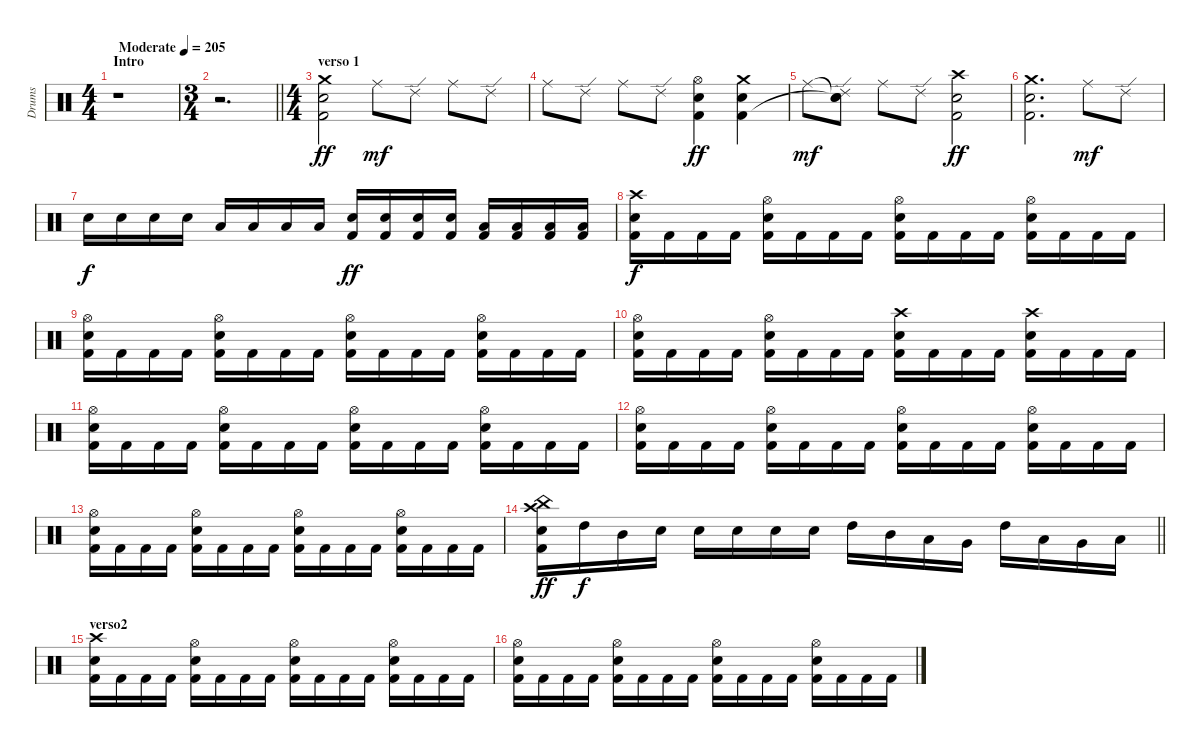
\track ("Drums" "Drums") {instrument percussion}
\staff {score}
\articulation defaults
\ts (4 4)
\section ("" "Intro")
\tempo (205 "Moderate")
\clef neutral
\ks c
r.1{dy ff} |
\ts (3 4)
\barLineRight lightlight
r.2{d} |
\ts (4 4)
\section ("" "verso 1")
("Crash medium (hit)" "Electric Snare (hit)" "Kick (hit) 2").2 "Ride (middle)".8{dy mf} "Ride (edge) 2".8 "Ride (middle)".8 "Ride (edge) 2".8 |
"Ride (middle)".8 "Ride (edge) 2".8 "Ride (middle)".8 "Ride (edge) 2".8 ("Hi-Hat (open)" "Electric Snare (hit)" "Kick (hit) 2").4{dy ff} ("Crash medium (hit)" "Electric Snare (hit)" "Kick (hit) 2").4 |
"Ride (middle)".8{dy mf} ("Snare (hit)"{t} "Ride (edge) 2" "Snare (hit)"{t}).8 "Ride (middle)".8 "Ride (edge) 2".8 ("Crash high (hit)" "Electric Snare (hit)" "Kick (hit) 2").2{dy ff} |
("Crash medium (hit)" "Electric Snare (hit)" "Kick (hit) 2").2{d} "Ride (middle)".8{dy mf} "Ride (edge) 2".8 |
"Electric Snare (hit)".16{dy f} "Electric Snare (hit)".16 "Electric Snare (hit)".16 "Electric Snare (hit)".16 "Low Tom (hit)".16 "Low Tom (hit)".16 "Low Tom (hit)".16 "Low Tom (hit)".16 ("Electric Snare (hit)" "Kick (hit) 2").16{dy ff} ("Electric Snare (hit)" "Kick (hit) 2").16 ("Electric Snare (hit)" "Kick (hit) 2").16 ("Electric Snare (hit)" "Kick (hit) 2").16 ("Low Tom (hit)" "Kick (hit) 2").16 ("Low Tom (hit)" "Kick (hit) 2").16 ("Low Tom (hit)" "Kick (hit) 2").16 ("Low Tom (hit)" "Kick (hit) 2").16 |
("Kick (hit) 2" "Electric Snare (hit)" "Crash high (hit)").16{dy f} "Kick (hit) 2".16 "Kick (hit) 2".16 "Kick (hit) 2".16 ("Kick (hit) 2" "Electric Snare (hit)" "Hi-Hat (open)").16 "Kick (hit) 2".16 "Kick (hit) 2".16 "Kick (hit) 2".16 ("Kick (hit) 2" "Electric Snare (hit)" "Hi-Hat (open)").16 "Kick (hit) 2".16 "Kick (hit) 2".16 "Kick (hit) 2".16 ("Kick (hit) 2" "Electric Snare (hit)" "Hi-Hat (open)").16 "Kick (hit) 2".16 "Kick (hit) 2".16 "Kick (hit) 2".16 |
("Kick (hit) 2" "Electric Snare (hit)" "Hi-Hat (open)").16 "Kick (hit) 2".16 "Kick (hit) 2".16 "Kick (hit) 2".16 ("Kick (hit) 2" "Electric Snare (hit)" "Hi-Hat (open)").16 "Kick (hit) 2".16 "Kick (hit) 2".16 "Kick (hit) 2".16 ("Kick (hit) 2" "Electric Snare (hit)" "Hi-Hat (open)").16 "Kick (hit) 2".16 "Kick (hit) 2".16 "Kick (hit) 2".16 ("Kick (hit) 2" "Electric Snare (hit)" "Hi-Hat (open)").16 "Kick (hit) 2".16 "Kick (hit) 2".16 "Kick (hit) 2".16 |
("Kick (hit) 2" "Electric Snare (hit)" "Hi-Hat (open)").16 "Kick (hit) 2".16 "Kick (hit) 2".16 "Kick (hit) 2".16 ("Kick (hit) 2" "Electric Snare (hit)" "Hi-Hat (open)").16 "Kick (hit) 2".16 "Kick (hit) 2".16 "Kick (hit) 2".16 ("Kick (hit) 2" "Electric Snare (hit)" "Crash high (hit)").16 "Kick (hit) 2".16 "Kick (hit) 2".16 "Kick (hit) 2".16 ("Kick (hit) 2" "Electric Snare (hit)" "Crash high (hit)").16 "Kick (hit) 2".16 "Kick (hit) 2".16 "Kick (hit) 2".16 |
("Kick (hit) 2" "Electric Snare (hit)" "Hi-Hat (open)").16 "Kick (hit) 2".16 "Kick (hit) 2".16 "Kick (hit) 2".16 ("Kick (hit) 2" "Electric Snare (hit)" "Hi-Hat (open)").16 "Kick (hit) 2".16 "Kick (hit) 2".16 "Kick (hit) 2".16 ("Kick (hit) 2" "Electric Snare (hit)" "Hi-Hat (open)").16 "Kick (hit) 2".16 "Kick (hit) 2".16 "Kick (hit) 2".16 ("Kick (hit) 2" "Electric Snare (hit)" "Hi-Hat (open)").16 "Kick (hit) 2".16 "Kick (hit) 2".16 "Kick (hit) 2".16 |
("Kick (hit) 2" "Electric Snare (hit)" "Hi-Hat (open)").16 "Kick (hit) 2".16 "Kick (hit) 2".16 "Kick (hit) 2".16 ("Kick (hit) 2" "Electric Snare (hit)" "Hi-Hat (open)").16 "Kick (hit) 2".16 "Kick (hit) 2".16 "Kick (hit) 2".16 ("Kick (hit) 2" "Electric Snare (hit)" "Hi-Hat (open)").16 "Kick (hit) 2".16 "Kick (hit) 2".16 "Kick (hit) 2".16 ("Kick (hit) 2" "Electric Snare (hit)" "Hi-Hat (open)").16 "Kick (hit) 2".16 "Kick (hit) 2".16 "Kick (hit) 2".16 |
("Kick (hit) 2" "Electric Snare (hit)" "Hi-Hat (open)").16 "Kick (hit) 2".16 "Kick (hit) 2".16 "Kick (hit) 2".16 ("Kick (hit) 2" "Electric Snare (hit)" "Hi-Hat (open)").16 "Kick (hit) 2".16 "Kick (hit) 2".16 "Kick (hit) 2".16 ("Kick (hit) 2" "Electric Snare (hit)" "Hi-Hat (open)").16 "Kick (hit) 2".16 "Kick (hit) 2".16 "Kick (hit) 2".16 ("Kick (hit) 2" "Electric Snare (hit)" "Hi-Hat (open)").16 "Kick (hit) 2".16 "Kick (hit) 2".16 "Kick (hit) 2".16 |
\barLineRight lightlight
("Crash high (hit)" "China (hit)" "Snare (hit) 2" "Kick (hit) 2").16{dy ff} "High Tom (hit)".16{dy f} "Mid Tom (hit)".16 "Snare (hit) 2".16 "Snare (hit) 2".16 "Snare (hit) 2".16 "Snare (hit) 2".16 "Snare (hit) 2".16 "High Tom (hit)".16 "Mid Tom (hit)".16 "Low Tom (hit)".16 "Very Low Tom (hit)".16 "High Tom (hit)".16 "Low Tom (hit)".16 "Very Low Tom (hit)".16 "Low Floor Tom (hit)".16 |
\section ("" "verso2")
("Kick (hit) 2" "Electric Snare (hit)" "Crash high (hit)").16 "Kick (hit) 2".16 "Kick (hit) 2".16 "Kick (hit) 2".16 ("Kick (hit) 2" "Electric Snare (hit)" "Hi-Hat (open)").16 "Kick (hit) 2".16 "Kick (hit) 2".16 "Kick (hit) 2".16 ("Kick (hit) 2" "Electric Snare (hit)" "Hi-Hat (open)").16 "Kick (hit) 2".16 "Kick (hit) 2".16 "Kick (hit) 2".16 ("Kick (hit) 2" "Electric Snare (hit)" "Hi-Hat (open)").16 "Kick (hit) 2".16 "Kick (hit) 2".16 "Kick (hit) 2".16 |
("Kick (hit) 2" "Electric Snare (hit)" "Hi-Hat (open)").16 "Kick (hit) 2".16 "Kick (hit) 2".16 "Kick (hit) 2".16 ("Kick (hit) 2" "Electric Snare (hit)" "Hi-Hat (open)").16 "Kick (hit) 2".16 "Kick (hit) 2".16 "Kick (hit) 2".16 ("Kick (hit) 2" "Electric Snare (hit)" "Hi-Hat (open)").16 "Kick (hit) 2".16 "Kick (hit) 2".16 "Kick (hit) 2".16 ("Kick (hit) 2" "Electric Snare (hit)" "Hi-Hat (open)").16 "Kick (hit) 2".16 "Kick (hit) 2".16 "Kick (hit) 2".16
